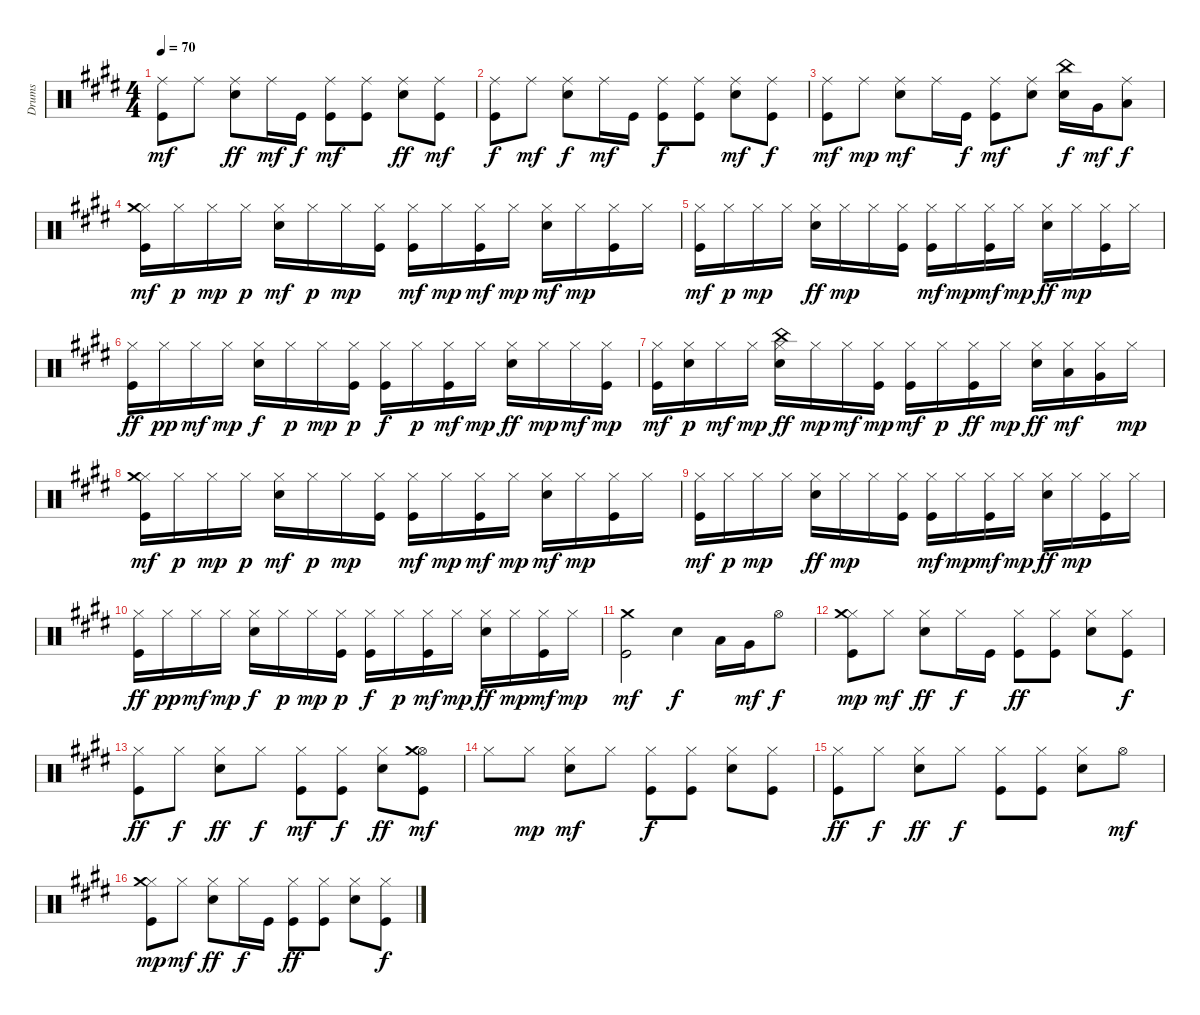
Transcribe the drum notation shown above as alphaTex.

\track ("Drums" "Drums") {instrument percussion}
\staff {score}
\articulation defaults
\ts (4 4)
\tempo 70
\clef neutral
\ks e
("Kick (hit)" "Ride (middle)").8{dy mf} "Ride (middle)".8 ("Snare (hit) 2" "Ride (middle)").8{dy ff} "Ride (middle)".16{dy mf} "Kick (hit)".16{dy f} ("Kick (hit)" "Ride (middle)").8{dy mf} ("Kick (hit)" "Ride (middle)").8 ("Snare (hit) 2" "Ride (middle)").8{dy ff} ("Kick (hit)" "Ride (middle)").8{dy mf} |
("Kick (hit)" "Ride (middle)").8{dy f} "Ride (middle)".8{dy mf} ("Snare (hit) 2" "Ride (middle)").8{dy f} "Ride (middle)".16{dy mf} "Kick (hit)".16 ("Kick (hit)" "Ride (middle)").8{dy f} ("Kick (hit)" "Ride (middle)").8 ("Snare (hit) 2" "Ride (middle)").8{dy mf} ("Kick (hit)" "Ride (middle)").8{dy f} |
("Kick (hit)" "Ride (middle)").8{dy mf} "Ride (middle)".8{dy mp} ("Snare (hit) 2" "Ride (middle)").8{dy mf} "Ride (middle)".16 "Kick (hit)".16{dy f} ("Kick (hit)" "Ride (middle)").8{dy mf} ("Snare (hit) 2" "Ride (middle)").8 ("Snare (hit) 2" "China (hit)").16{dy f} "Very Low Tom (hit)".16{dy mf} ("Low Floor Tom (hit)" "Ride (middle)").8{dy f} |
("Kick (hit)" "Hi-Hat (closed)" "Crash medium (hit)").16{dy mf} "Hi-Hat (closed)".16{dy p} "Hi-Hat (closed)".16{dy mp} "Hi-Hat (closed)".16{dy p} ("Snare (hit) 2" "Hi-Hat (closed)").16{dy mf} "Hi-Hat (closed)".16{dy p} "Hi-Hat (closed)".16{dy mp} ("Kick (hit)" "Hi-Hat (closed)").16 ("Kick (hit)" "Hi-Hat (closed)").16{dy mf} "Hi-Hat (closed)".16{dy mp} ("Kick (hit)" "Hi-Hat (closed)").16{dy mf} "Hi-Hat (closed)".16{dy mp} ("Snare (hit) 2" "Hi-Hat (closed)").16{dy mf} "Hi-Hat (closed)".16{dy mp} ("Kick (hit)" "Hi-Hat (closed)").16 "Hi-Hat (closed)".16 |
("Kick (hit)" "Hi-Hat (closed)").16{dy mf} "Hi-Hat (closed)".16{dy p} "Hi-Hat (closed)".16{dy mp} "Hi-Hat (closed)".16 ("Snare (hit) 2" "Hi-Hat (closed)").16{dy ff} "Hi-Hat (closed)".16{dy mp} "Hi-Hat (closed)".16 ("Kick (hit)" "Hi-Hat (closed)").16 ("Kick (hit)" "Hi-Hat (closed)").16{dy mf} "Hi-Hat (closed)".16{dy mp} ("Kick (hit)" "Hi-Hat (closed)").16{dy mf} "Hi-Hat (closed)".16{dy mp} ("Snare (hit) 2" "Hi-Hat (closed)").16{dy ff} "Hi-Hat (closed)".16{dy mp} ("Kick (hit)" "Hi-Hat (closed)").16 "Hi-Hat (closed)".16 |
("Kick (hit)" "Hi-Hat (closed)").16{dy ff} "Hi-Hat (closed)".16{dy pp} "Hi-Hat (closed)".16{dy mf} "Hi-Hat (closed)".16{dy mp} ("Snare (hit) 2" "Hi-Hat (closed)").16{dy f} "Hi-Hat (closed)".16{dy p} "Hi-Hat (closed)".16{dy mp} ("Kick (hit)" "Hi-Hat (closed)").16{dy p} ("Kick (hit)" "Hi-Hat (closed)").16{dy f} "Hi-Hat (closed)".16{dy p} ("Kick (hit)" "Hi-Hat (closed)").16{dy mf} "Hi-Hat (closed)".16{dy mp} ("Snare (hit) 2" "Hi-Hat (closed)").16{dy ff} "Hi-Hat (closed)".16{dy mp} "Hi-Hat (closed)".16{dy mf} ("Kick (hit)" "Hi-Hat (closed)").16{dy mp} |
("Kick (hit)" "Hi-Hat (closed)").16{dy mf} ("Snare (hit) 2" "Hi-Hat (closed)").16{dy p} "Hi-Hat (closed)".16{dy mf} "Hi-Hat (closed)".16{dy mp} ("Snare (hit) 2" "Hi-Hat (closed)" "China (hit)").16{dy ff} "Hi-Hat (closed)".16{dy mp} "Hi-Hat (closed)".16{dy mf} ("Kick (hit)" "Hi-Hat (closed)").16{dy mp} ("Kick (hit)" "Hi-Hat (closed)").16{dy mf} "Hi-Hat (closed)".16{dy p} ("Kick (hit)" "Hi-Hat (closed)").16{dy ff} "Hi-Hat (closed)".16{dy mp} ("Snare (hit) 2" "Hi-Hat (closed)").16{dy ff} ("Hi-Hat (closed)" "Low Tom (hit)").16{dy mf} ("Hi-Hat (closed)" "Very Low Tom (hit)").16 "Hi-Hat (closed)".16{dy mp} |
("Kick (hit)" "Hi-Hat (closed)" "Crash medium (hit)").16{dy mf} "Hi-Hat (closed)".16{dy p} "Hi-Hat (closed)".16{dy mp} "Hi-Hat (closed)".16{dy p} ("Snare (hit) 2" "Hi-Hat (closed)").16{dy mf} "Hi-Hat (closed)".16{dy p} "Hi-Hat (closed)".16{dy mp} ("Kick (hit)" "Hi-Hat (closed)").16 ("Kick (hit)" "Hi-Hat (closed)").16{dy mf} "Hi-Hat (closed)".16{dy mp} ("Kick (hit)" "Hi-Hat (closed)").16{dy mf} "Hi-Hat (closed)".16{dy mp} ("Snare (hit) 2" "Hi-Hat (closed)").16{dy mf} "Hi-Hat (closed)".16{dy mp} ("Kick (hit)" "Hi-Hat (closed)").16 "Hi-Hat (closed)".16 |
("Kick (hit)" "Hi-Hat (closed)").16{dy mf} "Hi-Hat (closed)".16{dy p} "Hi-Hat (closed)".16{dy mp} "Hi-Hat (closed)".16 ("Snare (hit) 2" "Hi-Hat (closed)").16{dy ff} "Hi-Hat (closed)".16{dy mp} "Hi-Hat (closed)".16 ("Kick (hit)" "Hi-Hat (closed)").16 ("Kick (hit)" "Hi-Hat (closed)").16{dy mf} "Hi-Hat (closed)".16{dy mp} ("Kick (hit)" "Hi-Hat (closed)").16{dy mf} "Hi-Hat (closed)".16{dy mp} ("Snare (hit) 2" "Hi-Hat (closed)").16{dy ff} "Hi-Hat (closed)".16{dy mp} ("Kick (hit)" "Hi-Hat (closed)").16 "Hi-Hat (closed)".16 |
("Kick (hit)" "Hi-Hat (closed)").16{dy ff} "Hi-Hat (closed)".16{dy pp} "Hi-Hat (closed)".16{dy mf} "Hi-Hat (closed)".16{dy mp} ("Snare (hit) 2" "Hi-Hat (closed)").16{dy f} "Hi-Hat (closed)".16{dy p} "Hi-Hat (closed)".16{dy mp} ("Kick (hit)" "Hi-Hat (closed)").16{dy p} ("Kick (hit)" "Hi-Hat (closed)").16{dy f} "Hi-Hat (closed)".16{dy p} ("Kick (hit)" "Hi-Hat (closed)").16{dy mf} "Hi-Hat (closed)".16{dy mp} ("Snare (hit) 2" "Hi-Hat (closed)").16{dy ff} "Hi-Hat (closed)".16{dy mp} ("Kick (hit)" "Hi-Hat (closed)").16{dy mf} "Hi-Hat (closed)".16{dy mp} |
("Kick (hit)" "Crash medium (hit)").2{dy mf} "Snare (hit) 2".4{dy f} "Low Tom (hit)".16 "Very Low Tom (hit)".16{dy mf} "Hi-Hat (open)".8{dy f} |
("Kick (hit)" "Hi-Hat (closed)" "Crash medium (hit)").8{dy mp} "Hi-Hat (closed)".8{dy mf} ("Snare (hit) 2" "Hi-Hat (closed)").8{dy ff} "Hi-Hat (closed)".16{dy f} "Kick (hit)".16 ("Kick (hit)" "Hi-Hat (closed)").8{dy ff} ("Kick (hit)" "Hi-Hat (closed)").8 ("Snare (hit) 2" "Hi-Hat (closed)").8 ("Kick (hit)" "Hi-Hat (closed)").8{dy f} |
("Kick (hit)" "Hi-Hat (closed)").8{dy ff} "Hi-Hat (closed)".8{dy f} ("Snare (hit) 2" "Hi-Hat (closed)").8{dy ff} "Hi-Hat (closed)".8{dy f} ("Kick (hit)" "Hi-Hat (closed)").8{dy mf} ("Kick (hit)" "Hi-Hat (closed)").8{dy f} ("Snare (hit) 2" "Hi-Hat (closed)").8{dy ff} ("Kick (hit)" "Hi-Hat (open)" "Crash medium (hit)").8{dy mf} |
"Hi-Hat (closed)".8 "Hi-Hat (closed)".8{dy mp} ("Snare (hit) 2" "Hi-Hat (closed)").8{dy mf} "Hi-Hat (closed)".8 ("Kick (hit)" "Hi-Hat (closed)").8{dy f} ("Kick (hit)" "Hi-Hat (closed)").8 ("Snare (hit) 2" "Hi-Hat (closed)").8 ("Kick (hit)" "Hi-Hat (closed)").8 |
("Kick (hit)" "Hi-Hat (closed)").8{dy ff} "Hi-Hat (closed)".8{dy f} ("Snare (hit) 2" "Hi-Hat (closed)").8{dy ff} "Hi-Hat (closed)".8{dy f} ("Kick (hit)" "Hi-Hat (closed)").8 ("Kick (hit)" "Hi-Hat (closed)").8 ("Snare (hit) 2" "Hi-Hat (closed)").8 "Hi-Hat (open)".8{dy mf} |
("Kick (hit)" "Hi-Hat (closed)" "Crash medium (hit)").8{dy mp} "Hi-Hat (closed)".8{dy mf} ("Snare (hit) 2" "Hi-Hat (closed)").8{dy ff} "Hi-Hat (closed)".16{dy f} "Kick (hit)".16 ("Kick (hit)" "Hi-Hat (closed)").8{dy ff} ("Kick (hit)" "Hi-Hat (closed)").8 ("Snare (hit) 2" "Hi-Hat (closed)").8 ("Kick (hit)" "Hi-Hat (closed)").8{dy f}
